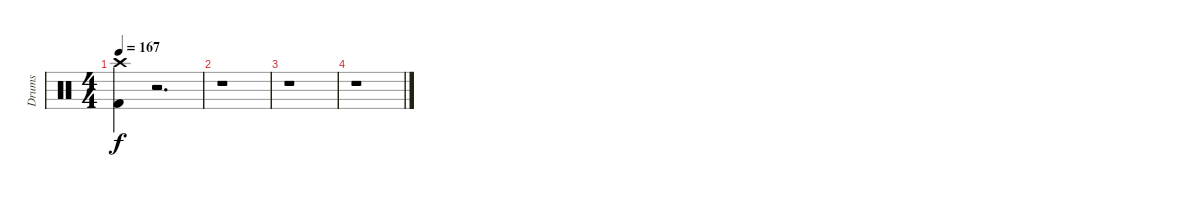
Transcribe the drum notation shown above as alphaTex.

\track ("Drums" "Drums") {instrument percussion}
\staff {score}
\articulation defaults
\ts (4 4)
\tempo 167
\clef neutral
\ks c
("Crash high (hit)" "Kick (hit) 2").4{dy f} r.2{d} |
r.1 |
r.1 |
r.1
